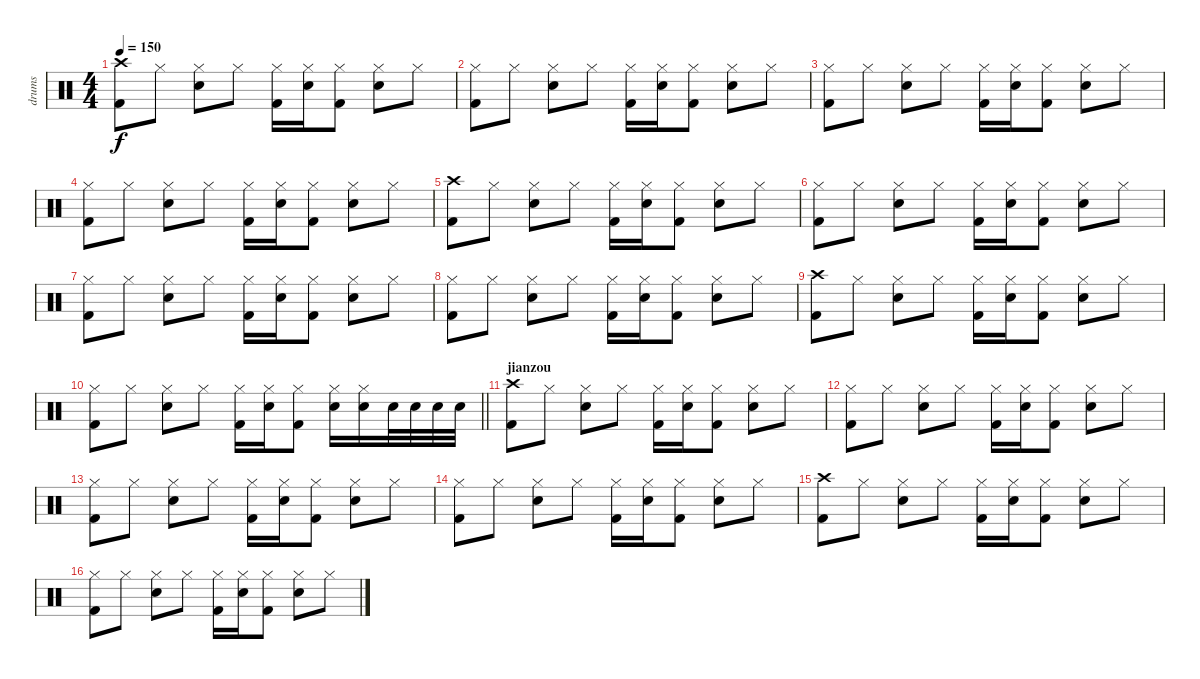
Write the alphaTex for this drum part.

\track ("drums" "drums") {instrument percussion}
\staff {score}
\articulation defaults
\ts (4 4)
\tempo 150
\clef neutral
\ks c
("Crash high (hit)" "Kick (hit) 2").8{dy f} "Hi-Hat (closed)".8 ("Hi-Hat (closed)" "Electric Snare (hit)").8 "Hi-Hat (closed)".8 ("Hi-Hat (closed)" "Kick (hit) 2").16 ("Hi-Hat (closed)" "Electric Snare (hit)").16 ("Hi-Hat (closed)" "Kick (hit) 2").8 ("Hi-Hat (closed)" "Electric Snare (hit)").8 "Hi-Hat (closed)".8 |
("Hi-Hat (closed)" "Kick (hit) 2").8 "Hi-Hat (closed)".8 ("Hi-Hat (closed)" "Electric Snare (hit)").8 "Hi-Hat (closed)".8 ("Hi-Hat (closed)" "Kick (hit) 2").16 ("Hi-Hat (closed)" "Electric Snare (hit)").16 ("Hi-Hat (closed)" "Kick (hit) 2").8 ("Hi-Hat (closed)" "Electric Snare (hit)").8 "Hi-Hat (closed)".8 |
("Hi-Hat (closed)" "Kick (hit) 2").8 "Hi-Hat (closed)".8 ("Hi-Hat (closed)" "Electric Snare (hit)").8 "Hi-Hat (closed)".8 ("Hi-Hat (closed)" "Kick (hit) 2").16 ("Hi-Hat (closed)" "Electric Snare (hit)").16 ("Hi-Hat (closed)" "Kick (hit) 2").8 ("Hi-Hat (closed)" "Electric Snare (hit)").8 "Hi-Hat (closed)".8 |
("Hi-Hat (closed)" "Kick (hit) 2").8 "Hi-Hat (closed)".8 ("Hi-Hat (closed)" "Electric Snare (hit)").8 "Hi-Hat (closed)".8 ("Hi-Hat (closed)" "Kick (hit) 2").16 ("Hi-Hat (closed)" "Electric Snare (hit)").16 ("Hi-Hat (closed)" "Kick (hit) 2").8 ("Hi-Hat (closed)" "Electric Snare (hit)").8 "Hi-Hat (closed)".8 |
("Crash high (hit)" "Kick (hit) 2").8 "Hi-Hat (closed)".8 ("Hi-Hat (closed)" "Electric Snare (hit)").8 "Hi-Hat (closed)".8 ("Hi-Hat (closed)" "Kick (hit) 2").16 ("Hi-Hat (closed)" "Electric Snare (hit)").16 ("Hi-Hat (closed)" "Kick (hit) 2").8 ("Hi-Hat (closed)" "Electric Snare (hit)").8 "Hi-Hat (closed)".8 |
("Hi-Hat (closed)" "Kick (hit) 2").8 "Hi-Hat (closed)".8 ("Hi-Hat (closed)" "Electric Snare (hit)").8 "Hi-Hat (closed)".8 ("Hi-Hat (closed)" "Kick (hit) 2").16 ("Hi-Hat (closed)" "Electric Snare (hit)").16 ("Hi-Hat (closed)" "Kick (hit) 2").8 ("Hi-Hat (closed)" "Electric Snare (hit)").8 "Hi-Hat (closed)".8 |
("Hi-Hat (closed)" "Kick (hit) 2").8 "Hi-Hat (closed)".8 ("Hi-Hat (closed)" "Electric Snare (hit)").8 "Hi-Hat (closed)".8 ("Hi-Hat (closed)" "Kick (hit) 2").16 ("Hi-Hat (closed)" "Electric Snare (hit)").16 ("Hi-Hat (closed)" "Kick (hit) 2").8 ("Hi-Hat (closed)" "Electric Snare (hit)").8 "Hi-Hat (closed)".8 |
("Hi-Hat (closed)" "Kick (hit) 2").8 "Hi-Hat (closed)".8 ("Hi-Hat (closed)" "Electric Snare (hit)").8 "Hi-Hat (closed)".8 ("Hi-Hat (closed)" "Kick (hit) 2").16 ("Hi-Hat (closed)" "Electric Snare (hit)").16 ("Hi-Hat (closed)" "Kick (hit) 2").8 ("Hi-Hat (closed)" "Electric Snare (hit)").8 "Hi-Hat (closed)".8 |
("Crash high (hit)" "Kick (hit) 2").8 "Hi-Hat (closed)".8 ("Hi-Hat (closed)" "Electric Snare (hit)").8 "Hi-Hat (closed)".8 ("Hi-Hat (closed)" "Kick (hit) 2").16 ("Hi-Hat (closed)" "Electric Snare (hit)").16 ("Hi-Hat (closed)" "Kick (hit) 2").8 ("Hi-Hat (closed)" "Electric Snare (hit)").8 "Hi-Hat (closed)".8 |
\barLineRight lightlight
("Hi-Hat (closed)" "Kick (hit) 2").8 "Hi-Hat (closed)".8 ("Hi-Hat (closed)" "Electric Snare (hit)").8 "Hi-Hat (closed)".8 ("Hi-Hat (closed)" "Kick (hit) 2").16 ("Hi-Hat (closed)" "Electric Snare (hit)").16 ("Hi-Hat (closed)" "Kick (hit) 2").8 ("Hi-Hat (closed)" "Electric Snare (hit)").16 ("Hi-Hat (closed)" "Electric Snare (hit)").16 "Electric Snare (hit)".32 "Electric Snare (hit)".32 "Electric Snare (hit)".32 "Electric Snare (hit)".32 |
\section ("" "jianzou")
("Crash high (hit)" "Kick (hit) 2").8 "Hi-Hat (closed)".8 ("Hi-Hat (closed)" "Electric Snare (hit)").8 "Hi-Hat (closed)".8 ("Hi-Hat (closed)" "Kick (hit) 2").16 ("Hi-Hat (closed)" "Electric Snare (hit)").16 ("Hi-Hat (closed)" "Kick (hit) 2").8 ("Hi-Hat (closed)" "Electric Snare (hit)").8 "Hi-Hat (closed)".8 |
("Hi-Hat (closed)" "Kick (hit) 2").8 "Hi-Hat (closed)".8 ("Hi-Hat (closed)" "Electric Snare (hit)").8 "Hi-Hat (closed)".8 ("Hi-Hat (closed)" "Kick (hit) 2").16 ("Hi-Hat (closed)" "Electric Snare (hit)").16 ("Hi-Hat (closed)" "Kick (hit) 2").8 ("Hi-Hat (closed)" "Electric Snare (hit)").8 "Hi-Hat (closed)".8 |
("Hi-Hat (closed)" "Kick (hit) 2").8 "Hi-Hat (closed)".8 ("Hi-Hat (closed)" "Electric Snare (hit)").8 "Hi-Hat (closed)".8 ("Hi-Hat (closed)" "Kick (hit) 2").16 ("Hi-Hat (closed)" "Electric Snare (hit)").16 ("Hi-Hat (closed)" "Kick (hit) 2").8 ("Hi-Hat (closed)" "Electric Snare (hit)").8 "Hi-Hat (closed)".8 |
("Hi-Hat (closed)" "Kick (hit) 2").8 "Hi-Hat (closed)".8 ("Hi-Hat (closed)" "Electric Snare (hit)").8 "Hi-Hat (closed)".8 ("Hi-Hat (closed)" "Kick (hit) 2").16 ("Hi-Hat (closed)" "Electric Snare (hit)").16 ("Hi-Hat (closed)" "Kick (hit) 2").8 ("Hi-Hat (closed)" "Electric Snare (hit)").8 "Hi-Hat (closed)".8 |
("Crash high (hit)" "Kick (hit) 2").8 "Hi-Hat (closed)".8 ("Hi-Hat (closed)" "Electric Snare (hit)").8 "Hi-Hat (closed)".8 ("Hi-Hat (closed)" "Kick (hit) 2").16 ("Hi-Hat (closed)" "Electric Snare (hit)").16 ("Hi-Hat (closed)" "Kick (hit) 2").8 ("Hi-Hat (closed)" "Electric Snare (hit)").8 "Hi-Hat (closed)".8 |
("Hi-Hat (closed)" "Kick (hit) 2").8 "Hi-Hat (closed)".8 ("Hi-Hat (closed)" "Electric Snare (hit)").8 "Hi-Hat (closed)".8 ("Hi-Hat (closed)" "Kick (hit) 2").16 ("Hi-Hat (closed)" "Electric Snare (hit)").16 ("Hi-Hat (closed)" "Kick (hit) 2").8 ("Hi-Hat (closed)" "Electric Snare (hit)").8 "Hi-Hat (closed)".8
